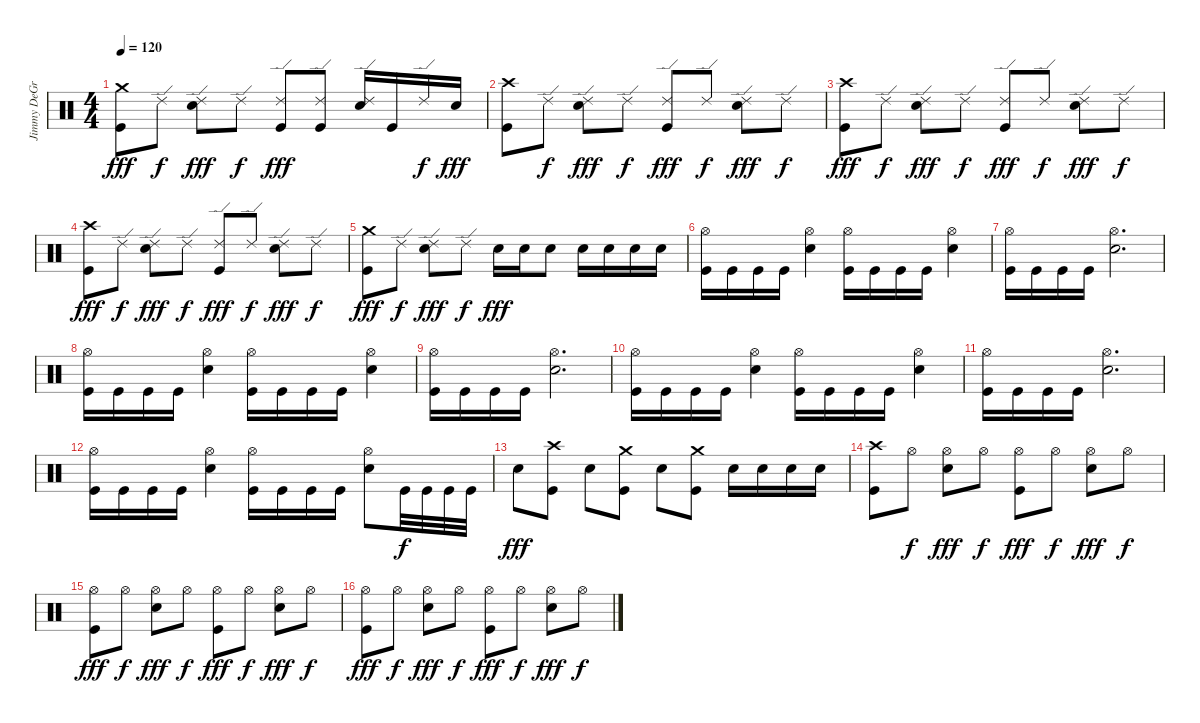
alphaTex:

\track ("Jimmy DeGrasso" "Jimmy DeGr") {instrument percussion}
\staff {score}
\articulation defaults
\ts (4 4)
\tempo 120
\clef neutral
\ks c
("Kick (hit)" "Crash medium (hit)").8{dy fff} "Ride (edge) 2".8{dy f} ("Electric Snare (hit)" "Ride (edge) 2").8{dy fff} "Ride (edge) 2".8{dy f} ("Kick (hit)" "Ride (edge) 2").8{dy fff} ("Kick (hit)" "Ride (edge) 2").8 ("Electric Snare (hit)" "Ride (edge) 2").16 "Kick (hit)".16 "Ride (edge) 2".16{dy f} "Electric Snare (hit)".16{dy fff} |
("Kick (hit)" "Crash high (hit)").8 "Ride (edge) 2".8{dy f} ("Electric Snare (hit)" "Ride (edge) 2").8{dy fff} "Ride (edge) 2".8{dy f} ("Kick (hit)" "Ride (edge) 2").8{dy fff} "Ride (edge) 2".8{dy f} ("Electric Snare (hit)" "Ride (edge) 2").8{dy fff} "Ride (edge) 2".8{dy f} |
("Kick (hit)" "Crash high (hit)").8{dy fff} "Ride (edge) 2".8{dy f} ("Electric Snare (hit)" "Ride (edge) 2").8{dy fff} "Ride (edge) 2".8{dy f} ("Kick (hit)" "Ride (edge) 2").8{dy fff} "Ride (edge) 2".8{dy f} ("Electric Snare (hit)" "Ride (edge) 2").8{dy fff} "Ride (edge) 2".8{dy f} |
("Kick (hit)" "Crash high (hit)").8{dy fff} "Ride (edge) 2".8{dy f} ("Electric Snare (hit)" "Ride (edge) 2").8{dy fff} "Ride (edge) 2".8{dy f} ("Kick (hit)" "Ride (edge) 2").8{dy fff} "Ride (edge) 2".8{dy f} ("Electric Snare (hit)" "Ride (edge) 2").8{dy fff} "Ride (edge) 2".8{dy f} |
("Kick (hit)" "Crash medium (hit)").8{dy fff} "Ride (edge) 2".8{dy f} ("Electric Snare (hit)" "Ride (edge) 2").8{dy fff} "Ride (edge) 2".8{dy f} "Electric Snare (hit)".16{dy fff} "Electric Snare (hit)".16 "Electric Snare (hit)".8 "Electric Snare (hit)".16 "Electric Snare (hit)".16 "Electric Snare (hit)".16 "Electric Snare (hit)".16 |
("Kick (hit)" "Hi-Hat (open)").16 "Kick (hit)".16 "Kick (hit)".16 "Kick (hit)".16 ("Electric Snare (hit)" "Hi-Hat (open)").4 ("Kick (hit)" "Hi-Hat (open)").16 "Kick (hit)".16 "Kick (hit)".16 "Kick (hit)".16 ("Electric Snare (hit)" "Hi-Hat (open)").4 |
("Kick (hit)" "Hi-Hat (open)").16 "Kick (hit)".16 "Kick (hit)".16 "Kick (hit)".16 ("Electric Snare (hit)" "Hi-Hat (open)").2{d} |
("Kick (hit)" "Hi-Hat (open)").16 "Kick (hit)".16 "Kick (hit)".16 "Kick (hit)".16 ("Electric Snare (hit)" "Hi-Hat (open)").4 ("Kick (hit)" "Hi-Hat (open)").16 "Kick (hit)".16 "Kick (hit)".16 "Kick (hit)".16 ("Electric Snare (hit)" "Hi-Hat (open)").4 |
("Kick (hit)" "Hi-Hat (open)").16 "Kick (hit)".16 "Kick (hit)".16 "Kick (hit)".16 ("Electric Snare (hit)" "Hi-Hat (open)").2{d} |
("Kick (hit)" "Hi-Hat (open)").16 "Kick (hit)".16 "Kick (hit)".16 "Kick (hit)".16 ("Electric Snare (hit)" "Hi-Hat (open)").4 ("Kick (hit)" "Hi-Hat (open)").16 "Kick (hit)".16 "Kick (hit)".16 "Kick (hit)".16 ("Electric Snare (hit)" "Hi-Hat (open)").4 |
("Kick (hit)" "Hi-Hat (open)").16 "Kick (hit)".16 "Kick (hit)".16 "Kick (hit)".16 ("Electric Snare (hit)" "Hi-Hat (open)").2{d} |
("Kick (hit)" "Hi-Hat (open)").16 "Kick (hit)".16 "Kick (hit)".16 "Kick (hit)".16 ("Electric Snare (hit)" "Hi-Hat (open)").4 ("Kick (hit)" "Hi-Hat (open)").16 "Kick (hit)".16 "Kick (hit)".16 "Kick (hit)".16 ("Electric Snare (hit)" "Hi-Hat (open)").8 "Kick (hit)".32{dy f} "Kick (hit)".32 "Kick (hit)".32 "Kick (hit)".32 |
"Electric Snare (hit)".8{dy fff} ("Kick (hit)" "Crash high (hit)").8 "Electric Snare (hit)".8 ("Kick (hit)" "Crash medium (hit)").8 "Electric Snare (hit)".8 ("Kick (hit)" "Crash medium (hit)").8 "Electric Snare (hit)".16 "Electric Snare (hit)".16 "Electric Snare (hit)".16 "Electric Snare (hit)".16 |
("Kick (hit)" "Crash high (hit)").8 "Hi-Hat (open)".8{dy f} ("Electric Snare (hit)" "Hi-Hat (open)").8{dy fff} "Hi-Hat (open)".8{dy f} ("Kick (hit)" "Hi-Hat (open)").8{dy fff} "Hi-Hat (open)".8{dy f} ("Electric Snare (hit)" "Hi-Hat (open)").8{dy fff} "Hi-Hat (open)".8{dy f} |
("Kick (hit)" "Hi-Hat (open)").8{dy fff} "Hi-Hat (open)".8{dy f} ("Electric Snare (hit)" "Hi-Hat (open)").8{dy fff} "Hi-Hat (open)".8{dy f} ("Kick (hit)" "Hi-Hat (open)").8{dy fff} "Hi-Hat (open)".8{dy f} ("Electric Snare (hit)" "Hi-Hat (open)").8{dy fff} "Hi-Hat (open)".8{dy f} |
("Kick (hit)" "Hi-Hat (open)").8{dy fff} "Hi-Hat (open)".8{dy f} ("Electric Snare (hit)" "Hi-Hat (open)").8{dy fff} "Hi-Hat (open)".8{dy f} ("Kick (hit)" "Hi-Hat (open)").8{dy fff} "Hi-Hat (open)".8{dy f} ("Electric Snare (hit)" "Hi-Hat (open)").8{dy fff} "Hi-Hat (open)".8{dy f}
